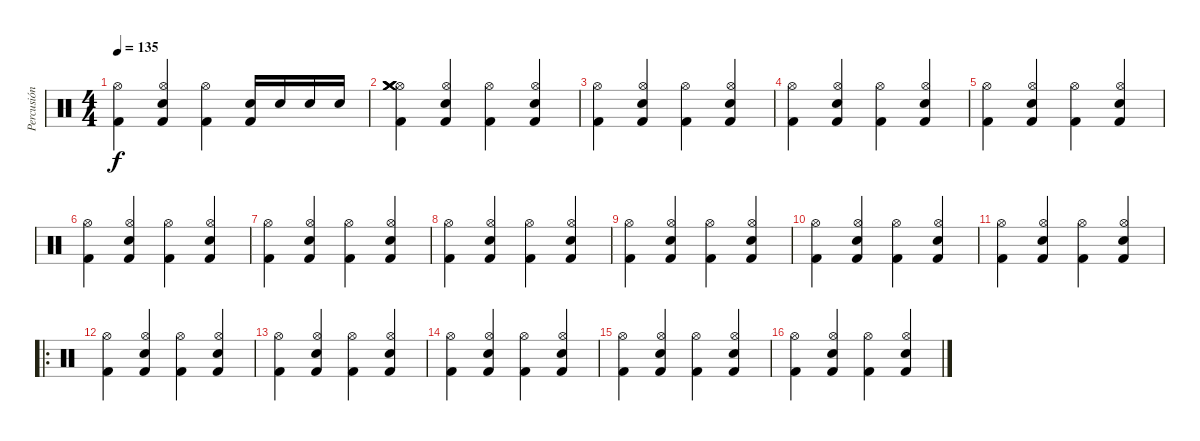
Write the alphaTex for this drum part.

\track ("Percusión" "Percusión") {instrument percussion}
\staff {score}
\articulation defaults
\ts (4 4)
\tempo 135
\clef neutral
\ks c
("Kick (hit) 2" "Hi-Hat (open)").4{dy f} ("Kick (hit) 2" "Electric Snare (hit)" "Hi-Hat (open)").4 ("Kick (hit) 2" "Hi-Hat (open)").4 ("Kick (hit) 2" "Electric Snare (hit)").16 "Electric Snare (hit)".16 "Electric Snare (hit)".16 "Electric Snare (hit)".16 |
("Kick (hit) 2" "Hi-Hat (open)" "Crash medium (hit)" "Crash medium (hit)" "Crash medium (hit)").4 ("Kick (hit) 2" "Electric Snare (hit)" "Hi-Hat (open)").4 ("Kick (hit) 2" "Hi-Hat (open)").4 ("Kick (hit) 2" "Electric Snare (hit)" "Hi-Hat (open)").4 |
("Kick (hit) 2" "Hi-Hat (open)").4 ("Kick (hit) 2" "Electric Snare (hit)" "Hi-Hat (open)").4 ("Kick (hit) 2" "Hi-Hat (open)").4 ("Kick (hit) 2" "Electric Snare (hit)" "Hi-Hat (open)").4 |
("Kick (hit) 2" "Hi-Hat (open)").4 ("Kick (hit) 2" "Electric Snare (hit)" "Hi-Hat (open)").4 ("Kick (hit) 2" "Hi-Hat (open)").4 ("Kick (hit) 2" "Electric Snare (hit)" "Hi-Hat (open)").4 |
("Kick (hit) 2" "Hi-Hat (open)").4 ("Kick (hit) 2" "Electric Snare (hit)" "Hi-Hat (open)").4 ("Kick (hit) 2" "Hi-Hat (open)").4 ("Kick (hit) 2" "Electric Snare (hit)" "Hi-Hat (open)").4 |
("Kick (hit) 2" "Hi-Hat (open)").4 ("Kick (hit) 2" "Electric Snare (hit)" "Hi-Hat (open)").4 ("Kick (hit) 2" "Hi-Hat (open)").4 ("Kick (hit) 2" "Electric Snare (hit)" "Hi-Hat (open)").4 |
("Kick (hit) 2" "Hi-Hat (open)").4 ("Kick (hit) 2" "Electric Snare (hit)" "Hi-Hat (open)").4 ("Kick (hit) 2" "Hi-Hat (open)").4 ("Kick (hit) 2" "Electric Snare (hit)" "Hi-Hat (open)").4 |
("Kick (hit) 2" "Hi-Hat (open)").4 ("Kick (hit) 2" "Electric Snare (hit)" "Hi-Hat (open)").4 ("Kick (hit) 2" "Hi-Hat (open)").4 ("Kick (hit) 2" "Electric Snare (hit)" "Hi-Hat (open)").4 |
("Kick (hit) 2" "Hi-Hat (open)").4 ("Kick (hit) 2" "Electric Snare (hit)" "Hi-Hat (open)").4 ("Kick (hit) 2" "Hi-Hat (open)").4 ("Kick (hit) 2" "Electric Snare (hit)" "Hi-Hat (open)").4 |
("Kick (hit) 2" "Hi-Hat (open)").4 ("Kick (hit) 2" "Electric Snare (hit)" "Hi-Hat (open)").4 ("Kick (hit) 2" "Hi-Hat (open)").4 ("Kick (hit) 2" "Electric Snare (hit)" "Hi-Hat (open)").4 |
("Kick (hit) 2" "Hi-Hat (open)").4 ("Kick (hit) 2" "Electric Snare (hit)" "Hi-Hat (open)").4 ("Kick (hit) 2" "Hi-Hat (open)").4 ("Kick (hit) 2" "Electric Snare (hit)" "Hi-Hat (open)").4 |
\ro
("Kick (hit) 2" "Hi-Hat (open)").4 ("Kick (hit) 2" "Electric Snare (hit)" "Hi-Hat (open)").4 ("Kick (hit) 2" "Hi-Hat (open)").4 ("Kick (hit) 2" "Electric Snare (hit)" "Hi-Hat (open)").4 |
("Kick (hit) 2" "Hi-Hat (open)").4 ("Kick (hit) 2" "Electric Snare (hit)" "Hi-Hat (open)").4 ("Kick (hit) 2" "Hi-Hat (open)").4 ("Kick (hit) 2" "Electric Snare (hit)" "Hi-Hat (open)").4 |
("Kick (hit) 2" "Hi-Hat (open)").4 ("Kick (hit) 2" "Electric Snare (hit)" "Hi-Hat (open)").4 ("Kick (hit) 2" "Hi-Hat (open)").4 ("Kick (hit) 2" "Electric Snare (hit)" "Hi-Hat (open)").4 |
("Kick (hit) 2" "Hi-Hat (open)").4 ("Kick (hit) 2" "Electric Snare (hit)" "Hi-Hat (open)").4 ("Kick (hit) 2" "Hi-Hat (open)").4 ("Kick (hit) 2" "Electric Snare (hit)" "Hi-Hat (open)").4 |
("Kick (hit) 2" "Hi-Hat (open)").4 ("Kick (hit) 2" "Electric Snare (hit)" "Hi-Hat (open)").4 ("Kick (hit) 2" "Hi-Hat (open)").4 ("Kick (hit) 2" "Electric Snare (hit)" "Hi-Hat (open)").4
